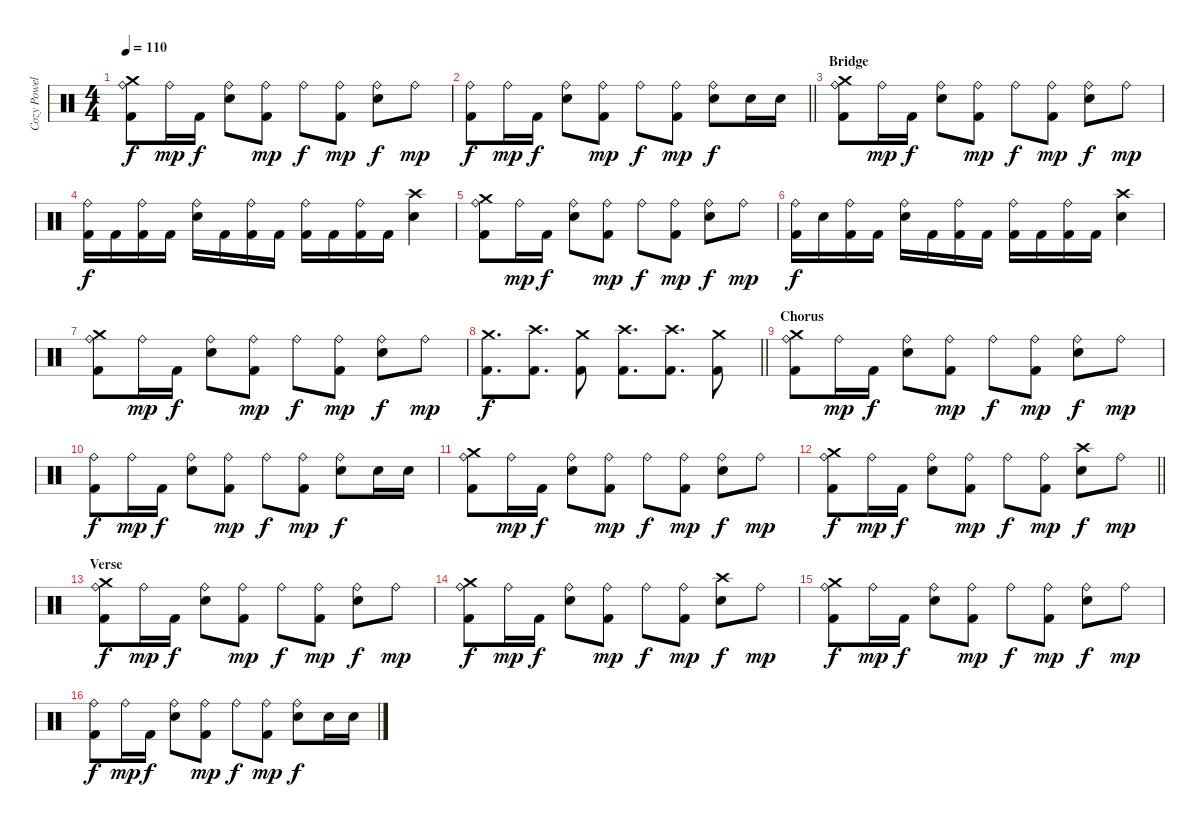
\track ("Cozy Powell" "Cozy Powel") {instrument percussion}
\staff {score}
\articulation defaults
\ts (4 4)
\tempo 110
\clef neutral
\ks c
("Crash medium (hit)" "Ride (bell)" "Kick (hit) 2").8{dy f} "Ride (bell)".16{dy mp} "Kick (hit) 2".16{dy f} ("Ride (bell)" "Snare (hit) 2").8 ("Ride (bell)" "Kick (hit) 2").8{dy mp} "Ride (bell)".8{dy f} ("Ride (bell)" "Kick (hit) 2").8{dy mp} ("Ride (bell)" "Snare (hit) 2").8{dy f} "Ride (bell)".8{dy mp} |
\barLineRight lightlight
("Ride (bell)" "Kick (hit) 2").8{dy f} "Ride (bell)".16{dy mp} "Kick (hit) 2".16{dy f} ("Ride (bell)" "Snare (hit) 2").8 ("Ride (bell)" "Kick (hit) 2").8{dy mp} "Ride (bell)".8{dy f} ("Ride (bell)" "Kick (hit) 2").8{dy mp} ("Ride (bell)" "Snare (hit) 2").8{dy f} "Snare (hit) 2".16 "Snare (hit) 2".16 |
\section ("" "Bridge")
("Crash medium (hit)" "Ride (bell)" "Kick (hit) 2").8 "Ride (bell)".16{dy mp} "Kick (hit) 2".16{dy f} ("Ride (bell)" "Snare (hit) 2").8 ("Ride (bell)" "Kick (hit) 2").8{dy mp} "Ride (bell)".8{dy f} ("Ride (bell)" "Kick (hit) 2").8{dy mp} ("Ride (bell)" "Snare (hit) 2").8{dy f} "Ride (bell)".8{dy mp} |
("Ride (bell)" "Kick (hit) 2").16{dy f} "Kick (hit) 2".16 ("Ride (bell)" "Kick (hit) 2").16 "Kick (hit) 2".16 ("Ride (bell)" "Snare (hit) 2").16 "Kick (hit) 2".16 ("Ride (bell)" "Kick (hit) 2").16 "Kick (hit) 2".16 ("Ride (bell)" "Kick (hit) 2").16 "Kick (hit) 2".16 ("Ride (bell)" "Kick (hit) 2").16 "Kick (hit) 2".16 ("Crash high (hit)" "Snare (hit) 2").4 |
("Crash medium (hit)" "Ride (bell)" "Kick (hit) 2").8 "Ride (bell)".16{dy mp} "Kick (hit) 2".16{dy f} ("Ride (bell)" "Snare (hit) 2").8 ("Ride (bell)" "Kick (hit) 2").8{dy mp} "Ride (bell)".8{dy f} ("Ride (bell)" "Kick (hit) 2").8{dy mp} ("Ride (bell)" "Snare (hit) 2").8{dy f} "Ride (bell)".8{dy mp} |
("Ride (bell)" "Kick (hit) 2").16{dy f} "Snare (hit) 2".16 ("Ride (bell)" "Kick (hit) 2").16 "Kick (hit) 2".16 ("Ride (bell)" "Snare (hit) 2").16 "Kick (hit) 2".16 ("Ride (bell)" "Kick (hit) 2").16 "Kick (hit) 2".16 ("Ride (bell)" "Kick (hit) 2").16 "Kick (hit) 2".16 ("Ride (bell)" "Kick (hit) 2").16 "Kick (hit) 2".16 ("Crash high (hit)" "Snare (hit) 2").4 |
("Crash medium (hit)" "Ride (bell)" "Kick (hit) 2").8 "Ride (bell)".16{dy mp} "Kick (hit) 2".16{dy f} ("Ride (bell)" "Snare (hit) 2").8 ("Ride (bell)" "Kick (hit) 2").8{dy mp} "Ride (bell)".8{dy f} ("Ride (bell)" "Kick (hit) 2").8{dy mp} ("Ride (bell)" "Snare (hit) 2").8{dy f} "Ride (bell)".8{dy mp} |
\barLineRight lightlight
("Crash medium (hit)" "Kick (hit) 2").8{d dy f} ("Crash high (hit)" "Kick (hit) 2").8{d} ("Crash medium (hit)" "Kick (hit) 2").8 ("Crash high (hit)" "Kick (hit) 2").8{d} ("Crash high (hit)" "Kick (hit) 2").8{d} ("Crash medium (hit)" "Kick (hit) 2").8 |
\section ("" "Chorus")
("Crash medium (hit)" "Ride (bell)" "Kick (hit) 2").8 "Ride (bell)".16{dy mp} "Kick (hit) 2".16{dy f} ("Ride (bell)" "Snare (hit) 2").8 ("Ride (bell)" "Kick (hit) 2").8{dy mp} "Ride (bell)".8{dy f} ("Ride (bell)" "Kick (hit) 2").8{dy mp} ("Ride (bell)" "Snare (hit) 2").8{dy f} "Ride (bell)".8{dy mp} |
("Ride (bell)" "Kick (hit) 2").8{dy f} "Ride (bell)".16{dy mp} "Kick (hit) 2".16{dy f} ("Ride (bell)" "Snare (hit) 2").8 ("Ride (bell)" "Kick (hit) 2").8{dy mp} "Ride (bell)".8{dy f} ("Ride (bell)" "Kick (hit) 2").8{dy mp} ("Ride (bell)" "Snare (hit) 2").8{dy f} "Snare (hit) 2".16 "Snare (hit) 2".16 |
("Crash medium (hit)" "Ride (bell)" "Kick (hit) 2").8 "Ride (bell)".16{dy mp} "Kick (hit) 2".16{dy f} ("Ride (bell)" "Snare (hit) 2").8 ("Ride (bell)" "Kick (hit) 2").8{dy mp} "Ride (bell)".8{dy f} ("Ride (bell)" "Kick (hit) 2").8{dy mp} ("Ride (bell)" "Snare (hit) 2").8{dy f} "Ride (bell)".8{dy mp} |
\barLineRight lightlight
("Crash medium (hit)" "Ride (bell)" "Kick (hit) 2").8{dy f} "Ride (bell)".16{dy mp} "Kick (hit) 2".16{dy f} ("Ride (bell)" "Snare (hit) 2").8 ("Ride (bell)" "Kick (hit) 2").8{dy mp} "Ride (bell)".8{dy f} ("Ride (bell)" "Kick (hit) 2").8{dy mp} ("Crash high (hit)" "Snare (hit) 2").8{dy f} "Ride (bell)".8{dy mp} |
\section ("" "Verse")
("Crash medium (hit)" "Ride (bell)" "Kick (hit) 2").8{dy f} "Ride (bell)".16{dy mp} "Kick (hit) 2".16{dy f} ("Ride (bell)" "Snare (hit) 2").8 ("Ride (bell)" "Kick (hit) 2").8{dy mp} "Ride (bell)".8{dy f} ("Ride (bell)" "Kick (hit) 2").8{dy mp} ("Ride (bell)" "Snare (hit) 2").8{dy f} "Ride (bell)".8{dy mp} |
("Crash medium (hit)" "Ride (bell)" "Kick (hit) 2").8{dy f} "Ride (bell)".16{dy mp} "Kick (hit) 2".16{dy f} ("Ride (bell)" "Snare (hit) 2").8 ("Ride (bell)" "Kick (hit) 2").8{dy mp} "Ride (bell)".8{dy f} ("Ride (bell)" "Kick (hit) 2").8{dy mp} ("Crash high (hit)" "Snare (hit) 2").8{dy f} "Ride (bell)".8{dy mp} |
("Crash medium (hit)" "Ride (bell)" "Kick (hit) 2").8{dy f} "Ride (bell)".16{dy mp} "Kick (hit) 2".16{dy f} ("Ride (bell)" "Snare (hit) 2").8 ("Ride (bell)" "Kick (hit) 2").8{dy mp} "Ride (bell)".8{dy f} ("Ride (bell)" "Kick (hit) 2").8{dy mp} ("Ride (bell)" "Snare (hit) 2").8{dy f} "Ride (bell)".8{dy mp} |
("Ride (bell)" "Kick (hit) 2").8{dy f} "Ride (bell)".16{dy mp} "Kick (hit) 2".16{dy f} ("Ride (bell)" "Snare (hit) 2").8 ("Ride (bell)" "Kick (hit) 2").8{dy mp} "Ride (bell)".8{dy f} ("Ride (bell)" "Kick (hit) 2").8{dy mp} ("Ride (bell)" "Snare (hit) 2").8{dy f} "Snare (hit) 2".16 "Snare (hit) 2".16
